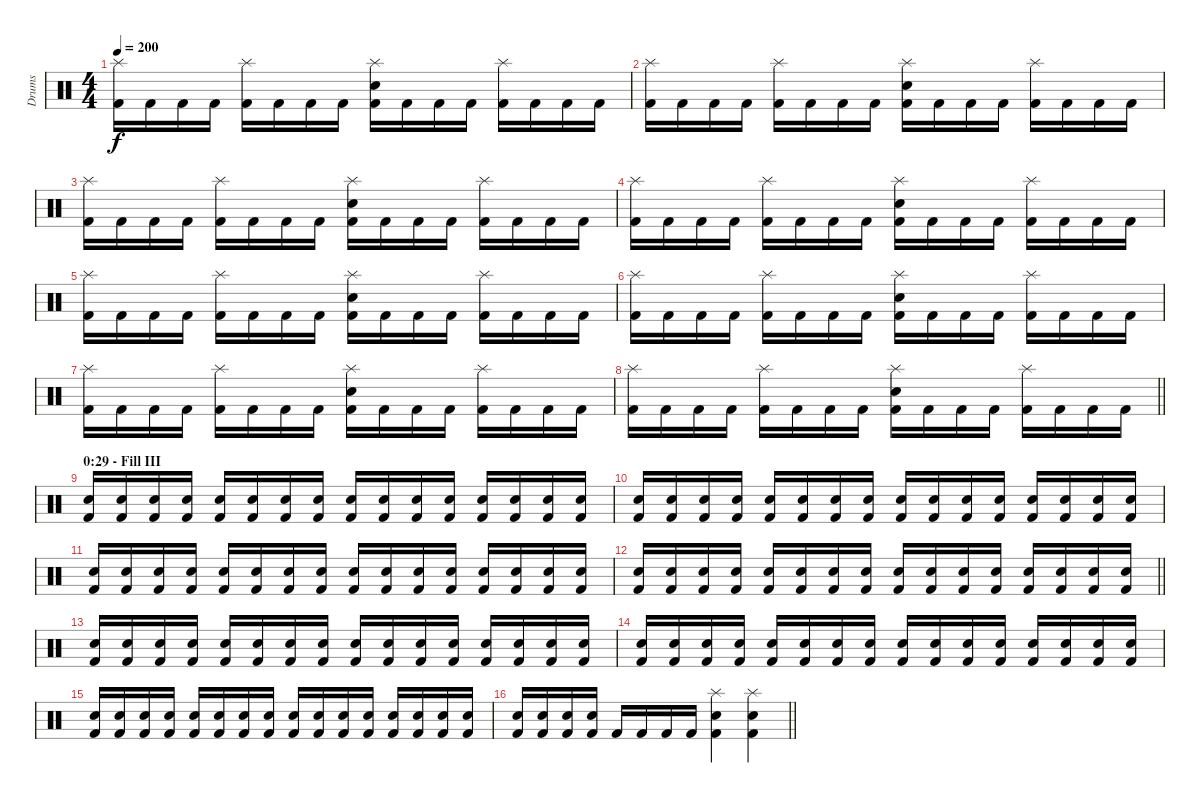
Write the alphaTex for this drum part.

\track ("Drums" "Drums") {instrument percussion}
\staff {score}
\articulation defaults
\ts (4 4)
\tempo 200
\clef neutral
\ks c
("Splash (hit)" "Kick (hit) 2").16{dy f} "Kick (hit) 2".16 "Kick (hit) 2".16 "Kick (hit) 2".16 ("Splash (hit)" "Kick (hit) 2").16 "Kick (hit) 2".16 "Kick (hit) 2".16 "Kick (hit) 2".16 ("Splash (hit)" "Electric Snare (hit)" "Kick (hit) 2").16 "Kick (hit) 2".16 "Kick (hit) 2".16 "Kick (hit) 2".16 ("Splash (hit)" "Kick (hit) 2").16 "Kick (hit) 2".16 "Kick (hit) 2".16 "Kick (hit) 2".16 |
("Splash (hit)" "Kick (hit) 2").16 "Kick (hit) 2".16 "Kick (hit) 2".16 "Kick (hit) 2".16 ("Splash (hit)" "Kick (hit) 2").16 "Kick (hit) 2".16 "Kick (hit) 2".16 "Kick (hit) 2".16 ("Splash (hit)" "Electric Snare (hit)" "Kick (hit) 2").16 "Kick (hit) 2".16 "Kick (hit) 2".16 "Kick (hit) 2".16 ("Splash (hit)" "Kick (hit) 2").16 "Kick (hit) 2".16 "Kick (hit) 2".16 "Kick (hit) 2".16 |
("Splash (hit)" "Kick (hit) 2").16 "Kick (hit) 2".16 "Kick (hit) 2".16 "Kick (hit) 2".16 ("Splash (hit)" "Kick (hit) 2").16 "Kick (hit) 2".16 "Kick (hit) 2".16 "Kick (hit) 2".16 ("Splash (hit)" "Electric Snare (hit)" "Kick (hit) 2").16 "Kick (hit) 2".16 "Kick (hit) 2".16 "Kick (hit) 2".16 ("Splash (hit)" "Kick (hit) 2").16 "Kick (hit) 2".16 "Kick (hit) 2".16 "Kick (hit) 2".16 |
("Splash (hit)" "Kick (hit) 2").16 "Kick (hit) 2".16 "Kick (hit) 2".16 "Kick (hit) 2".16 ("Splash (hit)" "Kick (hit) 2").16 "Kick (hit) 2".16 "Kick (hit) 2".16 "Kick (hit) 2".16 ("Splash (hit)" "Electric Snare (hit)" "Kick (hit) 2").16 "Kick (hit) 2".16 "Kick (hit) 2".16 "Kick (hit) 2".16 ("Splash (hit)" "Kick (hit) 2").16 "Kick (hit) 2".16 "Kick (hit) 2".16 "Kick (hit) 2".16 |
("Splash (hit)" "Kick (hit) 2").16 "Kick (hit) 2".16 "Kick (hit) 2".16 "Kick (hit) 2".16 ("Splash (hit)" "Kick (hit) 2").16 "Kick (hit) 2".16 "Kick (hit) 2".16 "Kick (hit) 2".16 ("Splash (hit)" "Electric Snare (hit)" "Kick (hit) 2").16 "Kick (hit) 2".16 "Kick (hit) 2".16 "Kick (hit) 2".16 ("Splash (hit)" "Kick (hit) 2").16 "Kick (hit) 2".16 "Kick (hit) 2".16 "Kick (hit) 2".16 |
("Splash (hit)" "Kick (hit) 2").16 "Kick (hit) 2".16 "Kick (hit) 2".16 "Kick (hit) 2".16 ("Splash (hit)" "Kick (hit) 2").16 "Kick (hit) 2".16 "Kick (hit) 2".16 "Kick (hit) 2".16 ("Splash (hit)" "Electric Snare (hit)" "Kick (hit) 2").16 "Kick (hit) 2".16 "Kick (hit) 2".16 "Kick (hit) 2".16 ("Splash (hit)" "Kick (hit) 2").16 "Kick (hit) 2".16 "Kick (hit) 2".16 "Kick (hit) 2".16 |
("Splash (hit)" "Kick (hit) 2").16 "Kick (hit) 2".16 "Kick (hit) 2".16 "Kick (hit) 2".16 ("Splash (hit)" "Kick (hit) 2").16 "Kick (hit) 2".16 "Kick (hit) 2".16 "Kick (hit) 2".16 ("Splash (hit)" "Electric Snare (hit)" "Kick (hit) 2").16 "Kick (hit) 2".16 "Kick (hit) 2".16 "Kick (hit) 2".16 ("Splash (hit)" "Kick (hit) 2").16 "Kick (hit) 2".16 "Kick (hit) 2".16 "Kick (hit) 2".16 |
\barLineRight lightlight
("Splash (hit)" "Kick (hit) 2").16 "Kick (hit) 2".16 "Kick (hit) 2".16 "Kick (hit) 2".16 ("Splash (hit)" "Kick (hit) 2").16 "Kick (hit) 2".16 "Kick (hit) 2".16 "Kick (hit) 2".16 ("Splash (hit)" "Electric Snare (hit)" "Kick (hit) 2").16 "Kick (hit) 2".16 "Kick (hit) 2".16 "Kick (hit) 2".16 ("Splash (hit)" "Kick (hit) 2").16 "Kick (hit) 2".16 "Kick (hit) 2".16 "Kick (hit) 2".16 |
\section ("" "0:29 - Fill III")
("Electric Snare (hit)" "Kick (hit) 2").16 ("Electric Snare (hit)" "Kick (hit) 2").16 ("Electric Snare (hit)" "Kick (hit) 2").16 ("Electric Snare (hit)" "Kick (hit) 2").16 ("Electric Snare (hit)" "Kick (hit) 2").16 ("Electric Snare (hit)" "Kick (hit) 2").16 ("Electric Snare (hit)" "Kick (hit) 2").16 ("Electric Snare (hit)" "Kick (hit) 2").16 ("Electric Snare (hit)" "Kick (hit) 2").16 ("Electric Snare (hit)" "Kick (hit) 2").16 ("Electric Snare (hit)" "Kick (hit) 2").16 ("Electric Snare (hit)" "Kick (hit) 2").16 ("Electric Snare (hit)" "Kick (hit) 2").16 ("Electric Snare (hit)" "Kick (hit) 2").16 ("Electric Snare (hit)" "Kick (hit) 2").16 ("Electric Snare (hit)" "Kick (hit) 2").16 |
("Electric Snare (hit)" "Kick (hit) 2").16 ("Electric Snare (hit)" "Kick (hit) 2").16 ("Electric Snare (hit)" "Kick (hit) 2").16 ("Electric Snare (hit)" "Kick (hit) 2").16 ("Electric Snare (hit)" "Kick (hit) 2").16 ("Electric Snare (hit)" "Kick (hit) 2").16 ("Electric Snare (hit)" "Kick (hit) 2").16 ("Electric Snare (hit)" "Kick (hit) 2").16 ("Electric Snare (hit)" "Kick (hit) 2").16 ("Electric Snare (hit)" "Kick (hit) 2").16 ("Electric Snare (hit)" "Kick (hit) 2").16 ("Electric Snare (hit)" "Kick (hit) 2").16 ("Electric Snare (hit)" "Kick (hit) 2").16 ("Electric Snare (hit)" "Kick (hit) 2").16 ("Electric Snare (hit)" "Kick (hit) 2").16 ("Electric Snare (hit)" "Kick (hit) 2").16 |
("Electric Snare (hit)" "Kick (hit) 2").16 ("Electric Snare (hit)" "Kick (hit) 2").16 ("Electric Snare (hit)" "Kick (hit) 2").16 ("Electric Snare (hit)" "Kick (hit) 2").16 ("Electric Snare (hit)" "Kick (hit) 2").16 ("Electric Snare (hit)" "Kick (hit) 2").16 ("Electric Snare (hit)" "Kick (hit) 2").16 ("Electric Snare (hit)" "Kick (hit) 2").16 ("Electric Snare (hit)" "Kick (hit) 2").16 ("Electric Snare (hit)" "Kick (hit) 2").16 ("Electric Snare (hit)" "Kick (hit) 2").16 ("Electric Snare (hit)" "Kick (hit) 2").16 ("Electric Snare (hit)" "Kick (hit) 2").16 ("Electric Snare (hit)" "Kick (hit) 2").16 ("Electric Snare (hit)" "Kick (hit) 2").16 ("Electric Snare (hit)" "Kick (hit) 2").16 |
\barLineRight lightlight
("Electric Snare (hit)" "Kick (hit) 2").16 ("Electric Snare (hit)" "Kick (hit) 2").16 ("Electric Snare (hit)" "Kick (hit) 2").16 ("Electric Snare (hit)" "Kick (hit) 2").16 ("Electric Snare (hit)" "Kick (hit) 2").16 ("Electric Snare (hit)" "Kick (hit) 2").16 ("Electric Snare (hit)" "Kick (hit) 2").16 ("Electric Snare (hit)" "Kick (hit) 2").16 ("Electric Snare (hit)" "Kick (hit) 2").16 ("Electric Snare (hit)" "Kick (hit) 2").16 ("Electric Snare (hit)" "Kick (hit) 2").16 ("Electric Snare (hit)" "Kick (hit) 2").16 ("Electric Snare (hit)" "Kick (hit) 2").16 ("Electric Snare (hit)" "Kick (hit) 2").16 ("Electric Snare (hit)" "Kick (hit) 2").16 ("Electric Snare (hit)" "Kick (hit) 2").16 |
("Electric Snare (hit)" "Kick (hit) 2").16 ("Electric Snare (hit)" "Kick (hit) 2").16 ("Electric Snare (hit)" "Kick (hit) 2").16 ("Electric Snare (hit)" "Kick (hit) 2").16 ("Electric Snare (hit)" "Kick (hit) 2").16 ("Electric Snare (hit)" "Kick (hit) 2").16 ("Electric Snare (hit)" "Kick (hit) 2").16 ("Electric Snare (hit)" "Kick (hit) 2").16 ("Electric Snare (hit)" "Kick (hit) 2").16 ("Electric Snare (hit)" "Kick (hit) 2").16 ("Electric Snare (hit)" "Kick (hit) 2").16 ("Electric Snare (hit)" "Kick (hit) 2").16 ("Electric Snare (hit)" "Kick (hit) 2").16 ("Electric Snare (hit)" "Kick (hit) 2").16 ("Electric Snare (hit)" "Kick (hit) 2").16 ("Electric Snare (hit)" "Kick (hit) 2").16 |
("Electric Snare (hit)" "Kick (hit) 2").16 ("Electric Snare (hit)" "Kick (hit) 2").16 ("Electric Snare (hit)" "Kick (hit) 2").16 ("Electric Snare (hit)" "Kick (hit) 2").16 ("Electric Snare (hit)" "Kick (hit) 2").16 ("Electric Snare (hit)" "Kick (hit) 2").16 ("Electric Snare (hit)" "Kick (hit) 2").16 ("Electric Snare (hit)" "Kick (hit) 2").16 ("Electric Snare (hit)" "Kick (hit) 2").16 ("Electric Snare (hit)" "Kick (hit) 2").16 ("Electric Snare (hit)" "Kick (hit) 2").16 ("Electric Snare (hit)" "Kick (hit) 2").16 ("Electric Snare (hit)" "Kick (hit) 2").16 ("Electric Snare (hit)" "Kick (hit) 2").16 ("Electric Snare (hit)" "Kick (hit) 2").16 ("Electric Snare (hit)" "Kick (hit) 2").16 |
("Electric Snare (hit)" "Kick (hit) 2").16 ("Electric Snare (hit)" "Kick (hit) 2").16 ("Electric Snare (hit)" "Kick (hit) 2").16 ("Electric Snare (hit)" "Kick (hit) 2").16 ("Electric Snare (hit)" "Kick (hit) 2").16 ("Electric Snare (hit)" "Kick (hit) 2").16 ("Electric Snare (hit)" "Kick (hit) 2").16 ("Electric Snare (hit)" "Kick (hit) 2").16 ("Electric Snare (hit)" "Kick (hit) 2").16 ("Electric Snare (hit)" "Kick (hit) 2").16 ("Electric Snare (hit)" "Kick (hit) 2").16 ("Electric Snare (hit)" "Kick (hit) 2").16 ("Electric Snare (hit)" "Kick (hit) 2").16 ("Electric Snare (hit)" "Kick (hit) 2").16 ("Electric Snare (hit)" "Kick (hit) 2").16 ("Electric Snare (hit)" "Kick (hit) 2").16 |
\barLineRight lightlight
("Electric Snare (hit)" "Kick (hit) 2").16 ("Electric Snare (hit)" "Kick (hit) 2").16 ("Electric Snare (hit)" "Kick (hit) 2").16 ("Electric Snare (hit)" "Kick (hit) 2").16 "Kick (hit) 2".16 "Kick (hit) 2".16 "Kick (hit) 2".16 "Kick (hit) 2".16 ("Splash (hit)" "Electric Snare (hit)" "Kick (hit) 2").4 ("Splash (hit)" "Electric Snare (hit)" "Kick (hit) 2").4
